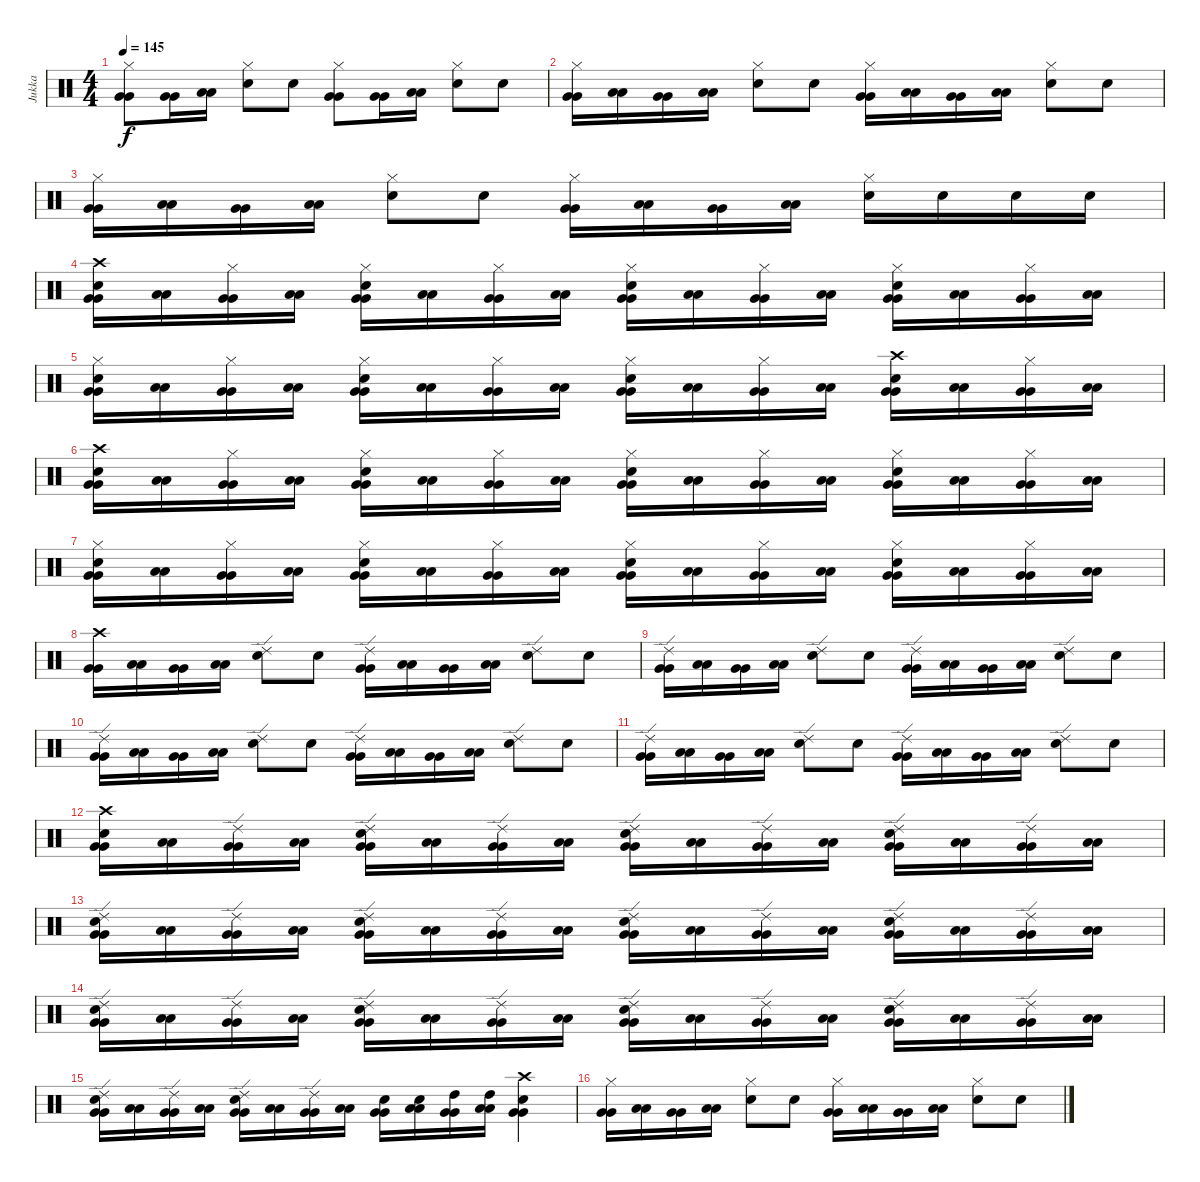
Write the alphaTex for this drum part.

\track ("Jukka" "Jukka") {instrument percussion}
\staff {score}
\articulation defaults
\ts (4 4)
\tempo 145
\clef neutral
\ks c
("Hi-Hat (closed)" "Very Low Tom (hit)" "Very Low Tom (hit)").8{dy f} ("Very Low Tom (hit)" "Very Low Tom (hit)").16 ("Low Floor Tom (hit)" "Low Floor Tom (hit)").16 ("Hi-Hat (closed)" "Electric Snare (hit)").8 "Electric Snare (hit)".8 ("Hi-Hat (closed)" "Very Low Tom (hit)" "Very Low Tom (hit)").8 ("Very Low Tom (hit)" "Very Low Tom (hit)").16 ("Low Floor Tom (hit)" "Low Floor Tom (hit)").16 ("Hi-Hat (closed)" "Electric Snare (hit)").8 "Electric Snare (hit)".8 |
("Hi-Hat (closed)" "Very Low Tom (hit)" "Very Low Tom (hit)").16 ("Low Floor Tom (hit)" "Low Floor Tom (hit)").16 ("Very Low Tom (hit)" "Very Low Tom (hit)").16 ("Low Floor Tom (hit)" "Low Floor Tom (hit)").16 ("Hi-Hat (closed)" "Electric Snare (hit)").8 "Electric Snare (hit)".8 ("Hi-Hat (closed)" "Very Low Tom (hit)" "Very Low Tom (hit)").16 ("Low Floor Tom (hit)" "Low Floor Tom (hit)").16 ("Very Low Tom (hit)" "Very Low Tom (hit)").16 ("Low Floor Tom (hit)" "Low Floor Tom (hit)").16 ("Hi-Hat (closed)" "Electric Snare (hit)").8 "Electric Snare (hit)".8 |
("Hi-Hat (closed)" "Very Low Tom (hit)" "Very Low Tom (hit)").16 ("Low Floor Tom (hit)" "Low Floor Tom (hit)").16 ("Very Low Tom (hit)" "Very Low Tom (hit)").16 ("Low Floor Tom (hit)" "Low Floor Tom (hit)").16 ("Hi-Hat (closed)" "Electric Snare (hit)").8 "Electric Snare (hit)".8 ("Hi-Hat (closed)" "Very Low Tom (hit)" "Very Low Tom (hit)").16 ("Low Floor Tom (hit)" "Low Floor Tom (hit)").16 ("Very Low Tom (hit)" "Very Low Tom (hit)").16 ("Low Floor Tom (hit)" "Low Floor Tom (hit)").16 ("Hi-Hat (closed)" "Electric Snare (hit)").16 "Electric Snare (hit)".16 "Electric Snare (hit)".16 "Electric Snare (hit)".16 |
("Crash high (hit)" "Electric Snare (hit)" "Very Low Tom (hit)" "Very Low Tom (hit)").16 ("Low Floor Tom (hit)" "Low Floor Tom (hit)").16 ("Hi-Hat (closed)" "Very Low Tom (hit)" "Very Low Tom (hit)").16 ("Low Floor Tom (hit)" "Low Floor Tom (hit)").16 ("Hi-Hat (closed)" "Electric Snare (hit)" "Very Low Tom (hit)" "Very Low Tom (hit)").16 ("Low Floor Tom (hit)" "Low Floor Tom (hit)").16 ("Hi-Hat (closed)" "Very Low Tom (hit)" "Very Low Tom (hit)").16 ("Low Floor Tom (hit)" "Low Floor Tom (hit)").16 ("Hi-Hat (closed)" "Electric Snare (hit)" "Very Low Tom (hit)" "Very Low Tom (hit)").16 ("Low Floor Tom (hit)" "Low Floor Tom (hit)").16 ("Hi-Hat (closed)" "Very Low Tom (hit)" "Very Low Tom (hit)").16 ("Low Floor Tom (hit)" "Low Floor Tom (hit)").16 ("Hi-Hat (closed)" "Electric Snare (hit)" "Very Low Tom (hit)" "Very Low Tom (hit)").16 ("Low Floor Tom (hit)" "Low Floor Tom (hit)").16 ("Hi-Hat (closed)" "Very Low Tom (hit)" "Very Low Tom (hit)").16 ("Low Floor Tom (hit)" "Low Floor Tom (hit)").16 |
("Hi-Hat (closed)" "Electric Snare (hit)" "Very Low Tom (hit)" "Very Low Tom (hit)").16 ("Low Floor Tom (hit)" "Low Floor Tom (hit)").16 ("Hi-Hat (closed)" "Very Low Tom (hit)" "Very Low Tom (hit)").16 ("Low Floor Tom (hit)" "Low Floor Tom (hit)").16 ("Hi-Hat (closed)" "Electric Snare (hit)" "Very Low Tom (hit)" "Very Low Tom (hit)").16 ("Low Floor Tom (hit)" "Low Floor Tom (hit)").16 ("Hi-Hat (closed)" "Very Low Tom (hit)" "Very Low Tom (hit)").16 ("Low Floor Tom (hit)" "Low Floor Tom (hit)").16 ("Hi-Hat (closed)" "Electric Snare (hit)" "Very Low Tom (hit)" "Very Low Tom (hit)").16 ("Low Floor Tom (hit)" "Low Floor Tom (hit)").16 ("Hi-Hat (closed)" "Very Low Tom (hit)" "Very Low Tom (hit)").16 ("Low Floor Tom (hit)" "Low Floor Tom (hit)").16 ("Crash high (hit)" "Electric Snare (hit)" "Very Low Tom (hit)" "Very Low Tom (hit)").16 ("Low Floor Tom (hit)" "Low Floor Tom (hit)").16 ("Hi-Hat (closed)" "Very Low Tom (hit)" "Very Low Tom (hit)").16 ("Low Floor Tom (hit)" "Low Floor Tom (hit)").16 |
("Crash high (hit)" "Electric Snare (hit)" "Very Low Tom (hit)" "Very Low Tom (hit)").16 ("Low Floor Tom (hit)" "Low Floor Tom (hit)").16 ("Hi-Hat (closed)" "Very Low Tom (hit)" "Very Low Tom (hit)").16 ("Low Floor Tom (hit)" "Low Floor Tom (hit)").16 ("Hi-Hat (closed)" "Electric Snare (hit)" "Very Low Tom (hit)" "Very Low Tom (hit)").16 ("Low Floor Tom (hit)" "Low Floor Tom (hit)").16 ("Hi-Hat (closed)" "Very Low Tom (hit)" "Very Low Tom (hit)").16 ("Low Floor Tom (hit)" "Low Floor Tom (hit)").16 ("Hi-Hat (closed)" "Electric Snare (hit)" "Very Low Tom (hit)" "Very Low Tom (hit)").16 ("Low Floor Tom (hit)" "Low Floor Tom (hit)").16 ("Hi-Hat (closed)" "Very Low Tom (hit)" "Very Low Tom (hit)").16 ("Low Floor Tom (hit)" "Low Floor Tom (hit)").16 ("Hi-Hat (closed)" "Electric Snare (hit)" "Very Low Tom (hit)" "Very Low Tom (hit)").16 ("Low Floor Tom (hit)" "Low Floor Tom (hit)").16 ("Hi-Hat (closed)" "Very Low Tom (hit)" "Very Low Tom (hit)").16 ("Low Floor Tom (hit)" "Low Floor Tom (hit)").16 |
("Hi-Hat (closed)" "Electric Snare (hit)" "Very Low Tom (hit)" "Very Low Tom (hit)").16 ("Low Floor Tom (hit)" "Low Floor Tom (hit)").16 ("Hi-Hat (closed)" "Very Low Tom (hit)" "Very Low Tom (hit)").16 ("Low Floor Tom (hit)" "Low Floor Tom (hit)").16 ("Hi-Hat (closed)" "Electric Snare (hit)" "Very Low Tom (hit)" "Very Low Tom (hit)").16 ("Low Floor Tom (hit)" "Low Floor Tom (hit)").16 ("Hi-Hat (closed)" "Very Low Tom (hit)" "Very Low Tom (hit)").16 ("Low Floor Tom (hit)" "Low Floor Tom (hit)").16 ("Hi-Hat (closed)" "Electric Snare (hit)" "Very Low Tom (hit)" "Very Low Tom (hit)").16 ("Low Floor Tom (hit)" "Low Floor Tom (hit)").16 ("Hi-Hat (closed)" "Very Low Tom (hit)" "Very Low Tom (hit)").16 ("Low Floor Tom (hit)" "Low Floor Tom (hit)").16 ("Hi-Hat (closed)" "Electric Snare (hit)" "Very Low Tom (hit)" "Very Low Tom (hit)").16 ("Low Floor Tom (hit)" "Low Floor Tom (hit)").16 ("Hi-Hat (closed)" "Very Low Tom (hit)" "Very Low Tom (hit)").16 ("Low Floor Tom (hit)" "Low Floor Tom (hit)").16 |
("Crash high (hit)" "Very Low Tom (hit)" "Very Low Tom (hit)").16 ("Low Floor Tom (hit)" "Low Floor Tom (hit)").16 ("Very Low Tom (hit)" "Very Low Tom (hit)").16 ("Low Floor Tom (hit)" "Low Floor Tom (hit)").16 ("Ride (edge) 2" "Electric Snare (hit)").8 "Electric Snare (hit)".8 ("Ride (edge) 2" "Very Low Tom (hit)" "Very Low Tom (hit)").16 ("Low Floor Tom (hit)" "Low Floor Tom (hit)").16 ("Very Low Tom (hit)" "Very Low Tom (hit)").16 ("Low Floor Tom (hit)" "Low Floor Tom (hit)").16 ("Ride (edge) 2" "Electric Snare (hit)").8 "Electric Snare (hit)".8 |
("Ride (edge) 2" "Very Low Tom (hit)" "Very Low Tom (hit)").16 ("Low Floor Tom (hit)" "Low Floor Tom (hit)").16 ("Very Low Tom (hit)" "Very Low Tom (hit)").16 ("Low Floor Tom (hit)" "Low Floor Tom (hit)").16 ("Ride (edge) 2" "Electric Snare (hit)").8 "Electric Snare (hit)".8 ("Ride (edge) 2" "Very Low Tom (hit)" "Very Low Tom (hit)").16 ("Low Floor Tom (hit)" "Low Floor Tom (hit)").16 ("Very Low Tom (hit)" "Very Low Tom (hit)").16 ("Low Floor Tom (hit)" "Low Floor Tom (hit)").16 ("Ride (edge) 2" "Electric Snare (hit)").8 "Electric Snare (hit)".8 |
("Ride (edge) 2" "Very Low Tom (hit)" "Very Low Tom (hit)").16 ("Low Floor Tom (hit)" "Low Floor Tom (hit)").16 ("Very Low Tom (hit)" "Very Low Tom (hit)").16 ("Low Floor Tom (hit)" "Low Floor Tom (hit)").16 ("Ride (edge) 2" "Electric Snare (hit)").8 "Electric Snare (hit)".8 ("Ride (edge) 2" "Very Low Tom (hit)" "Very Low Tom (hit)").16 ("Low Floor Tom (hit)" "Low Floor Tom (hit)").16 ("Very Low Tom (hit)" "Very Low Tom (hit)").16 ("Low Floor Tom (hit)" "Low Floor Tom (hit)").16 ("Ride (edge) 2" "Electric Snare (hit)").8 "Electric Snare (hit)".8 |
("Ride (edge) 2" "Very Low Tom (hit)" "Very Low Tom (hit)").16 ("Low Floor Tom (hit)" "Low Floor Tom (hit)").16 ("Very Low Tom (hit)" "Very Low Tom (hit)").16 ("Low Floor Tom (hit)" "Low Floor Tom (hit)").16 ("Ride (edge) 2" "Electric Snare (hit)").8 "Electric Snare (hit)".8 ("Ride (edge) 2" "Very Low Tom (hit)" "Very Low Tom (hit)").16 ("Low Floor Tom (hit)" "Low Floor Tom (hit)").16 ("Very Low Tom (hit)" "Very Low Tom (hit)").16 ("Low Floor Tom (hit)" "Low Floor Tom (hit)").16 ("Ride (edge) 2" "Electric Snare (hit)").8 "Electric Snare (hit)".8 |
("Crash high (hit)" "Electric Snare (hit)" "Very Low Tom (hit)" "Very Low Tom (hit)").16 ("Low Floor Tom (hit)" "Low Floor Tom (hit)").16 ("Ride (edge) 2" "Very Low Tom (hit)" "Very Low Tom (hit)").16 ("Low Floor Tom (hit)" "Low Floor Tom (hit)").16 ("Ride (edge) 2" "Electric Snare (hit)" "Very Low Tom (hit)" "Very Low Tom (hit)").16 ("Low Floor Tom (hit)" "Low Floor Tom (hit)").16 ("Ride (edge) 2" "Very Low Tom (hit)" "Very Low Tom (hit)").16 ("Low Floor Tom (hit)" "Low Floor Tom (hit)").16 ("Ride (edge) 2" "Electric Snare (hit)" "Very Low Tom (hit)" "Very Low Tom (hit)").16 ("Low Floor Tom (hit)" "Low Floor Tom (hit)").16 ("Ride (edge) 2" "Very Low Tom (hit)" "Very Low Tom (hit)").16 ("Low Floor Tom (hit)" "Low Floor Tom (hit)").16 ("Ride (edge) 2" "Electric Snare (hit)" "Very Low Tom (hit)" "Very Low Tom (hit)").16 ("Low Floor Tom (hit)" "Low Floor Tom (hit)").16 ("Ride (edge) 2" "Very Low Tom (hit)" "Very Low Tom (hit)").16 ("Low Floor Tom (hit)" "Low Floor Tom (hit)").16 |
("Ride (edge) 2" "Electric Snare (hit)" "Very Low Tom (hit)" "Very Low Tom (hit)").16 ("Low Floor Tom (hit)" "Low Floor Tom (hit)").16 ("Ride (edge) 2" "Very Low Tom (hit)" "Very Low Tom (hit)").16 ("Low Floor Tom (hit)" "Low Floor Tom (hit)").16 ("Ride (edge) 2" "Electric Snare (hit)" "Very Low Tom (hit)" "Very Low Tom (hit)").16 ("Low Floor Tom (hit)" "Low Floor Tom (hit)").16 ("Ride (edge) 2" "Very Low Tom (hit)" "Very Low Tom (hit)").16 ("Low Floor Tom (hit)" "Low Floor Tom (hit)").16 ("Ride (edge) 2" "Electric Snare (hit)" "Very Low Tom (hit)" "Very Low Tom (hit)").16 ("Low Floor Tom (hit)" "Low Floor Tom (hit)").16 ("Ride (edge) 2" "Very Low Tom (hit)" "Very Low Tom (hit)").16 ("Low Floor Tom (hit)" "Low Floor Tom (hit)").16 ("Ride (edge) 2" "Electric Snare (hit)" "Very Low Tom (hit)" "Very Low Tom (hit)").16 ("Low Floor Tom (hit)" "Low Floor Tom (hit)").16 ("Ride (edge) 2" "Very Low Tom (hit)" "Very Low Tom (hit)").16 ("Low Floor Tom (hit)" "Low Floor Tom (hit)").16 |
("Ride (edge) 2" "Electric Snare (hit)" "Very Low Tom (hit)" "Very Low Tom (hit)").16 ("Low Floor Tom (hit)" "Low Floor Tom (hit)").16 ("Ride (edge) 2" "Very Low Tom (hit)" "Very Low Tom (hit)").16 ("Low Floor Tom (hit)" "Low Floor Tom (hit)").16 ("Ride (edge) 2" "Electric Snare (hit)" "Very Low Tom (hit)" "Very Low Tom (hit)").16 ("Low Floor Tom (hit)" "Low Floor Tom (hit)").16 ("Ride (edge) 2" "Very Low Tom (hit)" "Very Low Tom (hit)").16 ("Low Floor Tom (hit)" "Low Floor Tom (hit)").16 ("Ride (edge) 2" "Electric Snare (hit)" "Very Low Tom (hit)" "Very Low Tom (hit)").16 ("Low Floor Tom (hit)" "Low Floor Tom (hit)").16 ("Ride (edge) 2" "Very Low Tom (hit)" "Very Low Tom (hit)").16 ("Low Floor Tom (hit)" "Low Floor Tom (hit)").16 ("Ride (edge) 2" "Electric Snare (hit)" "Very Low Tom (hit)" "Very Low Tom (hit)").16 ("Low Floor Tom (hit)" "Low Floor Tom (hit)").16 ("Ride (edge) 2" "Very Low Tom (hit)" "Very Low Tom (hit)").16 ("Low Floor Tom (hit)" "Low Floor Tom (hit)").16 |
("Ride (edge) 2" "Electric Snare (hit)" "Very Low Tom (hit)" "Very Low Tom (hit)").16 ("Low Floor Tom (hit)" "Low Floor Tom (hit)").16 ("Ride (edge) 2" "Very Low Tom (hit)" "Very Low Tom (hit)").16 ("Low Floor Tom (hit)" "Low Floor Tom (hit)").16 ("Ride (edge) 2" "Electric Snare (hit)" "Very Low Tom (hit)" "Very Low Tom (hit)").16 ("Low Floor Tom (hit)" "Low Floor Tom (hit)").16 ("Ride (edge) 2" "Very Low Tom (hit)" "Very Low Tom (hit)").16 ("Low Floor Tom (hit)" "Low Floor Tom (hit)").16 ("Electric Snare (hit)" "Very Low Tom (hit)" "Very Low Tom (hit)").16 ("Electric Snare (hit)" "Low Floor Tom (hit)" "Low Floor Tom (hit)").16 ("High Tom (hit)" "Very Low Tom (hit)" "Very Low Tom (hit)").16 ("High Tom (hit)" "Low Floor Tom (hit)" "Low Floor Tom (hit)").16 ("Crash high (hit)" "Electric Snare (hit)" "Very Low Tom (hit)" "Very Low Tom (hit)").4 |
("Hi-Hat (closed)" "Very Low Tom (hit)" "Very Low Tom (hit)").16 ("Low Floor Tom (hit)" "Low Floor Tom (hit)").16 ("Very Low Tom (hit)" "Very Low Tom (hit)").16 ("Low Floor Tom (hit)" "Low Floor Tom (hit)").16 ("Hi-Hat (closed)" "Electric Snare (hit)").8 "Electric Snare (hit)".8 ("Hi-Hat (closed)" "Very Low Tom (hit)" "Very Low Tom (hit)").16 ("Low Floor Tom (hit)" "Low Floor Tom (hit)").16 ("Very Low Tom (hit)" "Very Low Tom (hit)").16 ("Low Floor Tom (hit)" "Low Floor Tom (hit)").16 ("Hi-Hat (closed)" "Electric Snare (hit)").8 "Electric Snare (hit)".8
